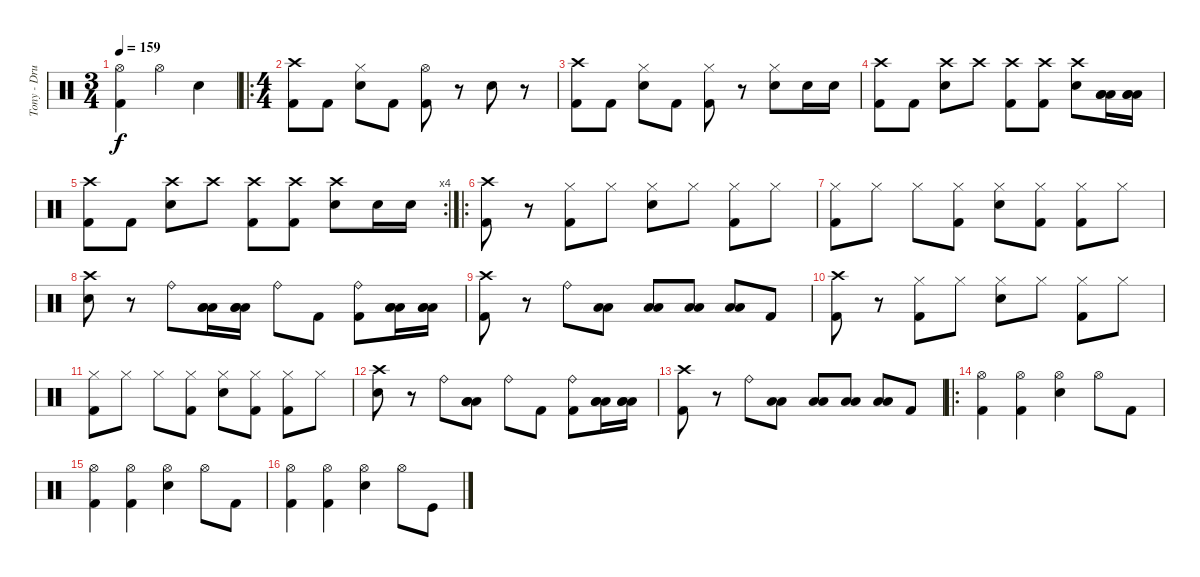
\track ("Tony - Drums" "Tony - Dru") {instrument percussion}
\staff {score}
\articulation defaults
\ts (3 4)
\tempo 159
\clef neutral
\ks c
("Kick (hit) 2" "Hi-Hat (open)").4{dy f} "Hi-Hat (open)".4 "Snare (hit) 2".4 |
\ro
\ts (4 4)
("Kick (hit) 2" "Crash high (hit)").8 "Kick (hit) 2".8 ("Snare (hit) 2" "Hi-Hat (closed)").8 "Kick (hit) 2".8 ("Kick (hit) 2" "Hi-Hat (open)").8 r.8 "Snare (hit) 2".8 r.8 |
("Kick (hit) 2" "Crash high (hit)").8 "Kick (hit) 2".8 ("Snare (hit) 2" "Hi-Hat (closed)").8 "Kick (hit) 2".8 ("Kick (hit) 2" "Hi-Hat (closed)").8 r.8 ("Snare (hit) 2" "Hi-Hat (closed)").8 "Snare (hit) 2".16 "Snare (hit) 2".16 |
("Kick (hit) 2" "Crash high (hit)").8 "Kick (hit) 2".8 ("Crash high (hit)" "Snare (hit) 2").8 "Crash high (hit)".8 ("Kick (hit) 2" "Crash high (hit)").8 ("Kick (hit) 2" "Crash high (hit)").8 ("Crash high (hit)" "Snare (hit) 2").8 ("Low Floor Tom (hit)" "Low Floor Tom (hit)" "Low Floor Tom (hit)").16 ("Low Floor Tom (hit)" "Low Floor Tom (hit)" "Low Floor Tom (hit)").16 |
\rc 4
("Kick (hit) 2" "Crash high (hit)").8 "Kick (hit) 2".8 ("Crash high (hit)" "Snare (hit) 2").8 "Crash high (hit)".8 ("Kick (hit) 2" "Crash high (hit)").8 ("Kick (hit) 2" "Crash high (hit)").8 ("Crash high (hit)" "Snare (hit) 2").8 "Snare (hit) 2".16 "Snare (hit) 2".16 |
\ro
("Kick (hit) 2" "Crash high (hit)").8 r.8 ("Kick (hit) 2" "Hi-Hat (closed)").8 "Hi-Hat (closed)".8 ("Snare (hit) 2" "Hi-Hat (closed)").8 "Hi-Hat (closed)".8 ("Kick (hit) 2" "Hi-Hat (closed)").8 "Hi-Hat (closed)".8 |
("Kick (hit) 2" "Hi-Hat (closed)").8 "Hi-Hat (closed)".8 "Hi-Hat (closed)".8 ("Kick (hit) 2" "Hi-Hat (closed)").8 ("Snare (hit) 2" "Hi-Hat (closed)").8 ("Kick (hit) 2" "Hi-Hat (closed)").8 ("Kick (hit) 2" "Hi-Hat (closed)").8 "Hi-Hat (closed)".8 |
("Crash high (hit)" "Snare (hit) 2").8 r.8 "Ride (bell)".8 ("Low Tom (hit)" "Low Tom (hit)" "Low Tom (hit)").16 ("Low Tom (hit)" "Low Tom (hit)" "Low Tom (hit)").16 "Ride (bell)".8 "Kick (hit) 2".8 ("Kick (hit) 2" "Ride (bell)").8 ("Low Floor Tom (hit)" "Low Floor Tom (hit)" "Low Floor Tom (hit)").16 ("Low Floor Tom (hit)" "Low Floor Tom (hit)" "Low Floor Tom (hit)").16 |
("Kick (hit) 2" "Crash high (hit)").8 r.8 "Ride (bell)".8 ("Low Tom (hit)" "Low Tom (hit)").8 ("Low Tom (hit)" "Low Tom (hit)").8 ("Low Floor Tom (hit)" "Low Floor Tom (hit)").8 ("Low Floor Tom (hit)" "Low Floor Tom (hit)").8 "Kick (hit) 2".8 |
("Kick (hit) 2" "Crash high (hit)").8 r.8 ("Kick (hit) 2" "Hi-Hat (closed)").8 "Hi-Hat (closed)".8 ("Snare (hit) 2" "Hi-Hat (closed)").8 "Hi-Hat (closed)".8 ("Kick (hit) 2" "Hi-Hat (closed)").8 "Hi-Hat (closed)".8 |
("Kick (hit) 2" "Hi-Hat (closed)").8 "Hi-Hat (closed)".8 "Hi-Hat (closed)".8 ("Kick (hit) 2" "Hi-Hat (closed)").8 ("Snare (hit) 2" "Hi-Hat (closed)").8 ("Kick (hit) 2" "Hi-Hat (closed)").8 ("Kick (hit) 2" "Hi-Hat (closed)").8 "Hi-Hat (closed)".8 |
("Crash high (hit)" "Snare (hit) 2").8 r.8 "Ride (bell)".8 ("Low Tom (hit)" "Low Tom (hit)" "Low Tom (hit)").8 "Ride (bell)".8 "Kick (hit) 2".8 ("Kick (hit) 2" "Ride (bell)").8 ("Low Floor Tom (hit)" "Low Floor Tom (hit)" "Low Floor Tom (hit)").16 ("Low Floor Tom (hit)" "Low Floor Tom (hit)" "Low Floor Tom (hit)").16 |
("Kick (hit) 2" "Crash high (hit)").8 r.8 "Ride (bell)".8 ("Low Tom (hit)" "Low Tom (hit)").8 ("Low Tom (hit)" "Low Tom (hit)").8 ("Low Floor Tom (hit)" "Low Floor Tom (hit)").8 ("Low Floor Tom (hit)" "Low Floor Tom (hit)").8 "Kick (hit) 2".8 |
\ro
("Hi-Hat (open)" "Kick (hit) 2").4 ("Hi-Hat (open)" "Kick (hit) 2").4 ("Hi-Hat (open)" "Electric Snare (hit)").4 "Hi-Hat (open)".8 "Kick (hit) 2".8 |
("Hi-Hat (open)" "Kick (hit) 2").4 ("Hi-Hat (open)" "Kick (hit) 2").4 ("Hi-Hat (open)" "Electric Snare (hit)").4 "Hi-Hat (open)".8 "Kick (hit) 2".8 |
("Hi-Hat (open)" "Kick (hit) 2").4 ("Hi-Hat (open)" "Kick (hit) 2").4 ("Hi-Hat (open)" "Electric Snare (hit)").4 "Hi-Hat (open)".8 "Kick (hit)".8
